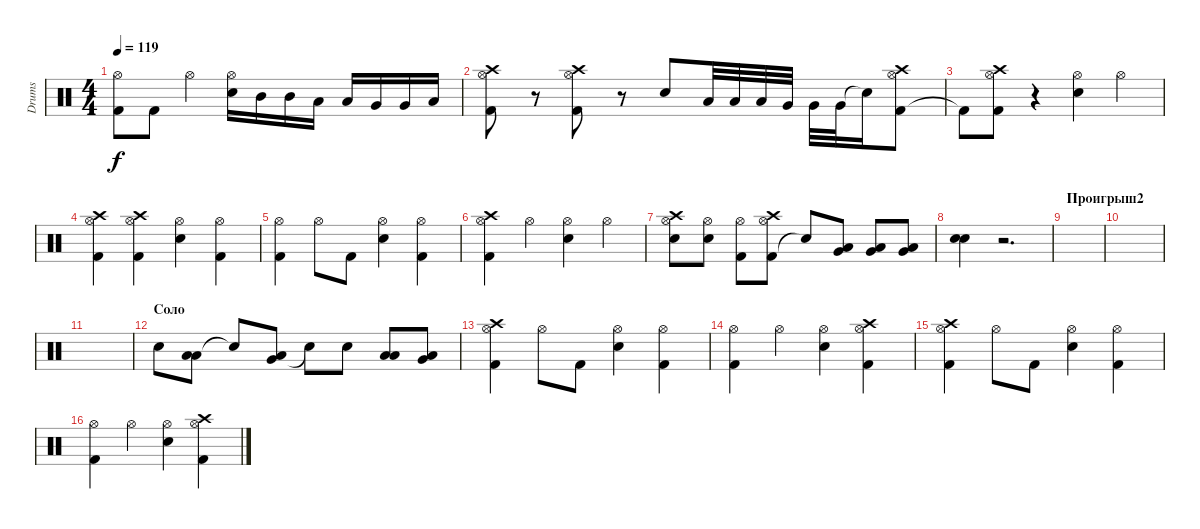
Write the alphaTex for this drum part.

\track ("Drums" "Drums") {instrument percussion}
\staff {score}
\articulation defaults
\ts (4 4)
\tempo 119
\clef neutral
\ks c
("Kick (hit) 2" "Hi-Hat (open)").8{dy f} "Kick (hit) 2".8 "Hi-Hat (open)".4 ("Electric Snare (hit)" "Hi-Hat (open)").16 "Mid Tom (hit)".16 "Mid Tom (hit)".16 "Low Tom (hit)".16 "Low Tom (hit)".16 "Very Low Tom (hit)".16 "Very Low Tom (hit)".16 "Low Floor Tom (hit)".16 |
("Kick (hit) 2" "Hi-Hat (open)" "Crash high (hit)").8 r.8 ("Kick (hit) 2" "Hi-Hat (open)" "Crash high (hit)").8 r.8 "Electric Snare (hit)".8 "Low Tom (hit)".32 "Low Tom (hit)".32 "Low Tom (hit)".32 "Very Low Tom (hit)".32 "Very Low Tom (hit)".32 "Very Low Tom (hit)".32 "Snare (hit)"{t}.16 ("Kick (hit) 2" "Hi-Hat (open)" "Crash high (hit)").8 |
"Kick (hit) 2"{t}.8 ("Kick (hit) 2" "Hi-Hat (open)" "Crash high (hit)").8 r.4 ("Electric Snare (hit)" "Hi-Hat (open)").4 "Hi-Hat (open)".4 |
("Kick (hit) 2" "Hi-Hat (open)" "Crash high (hit)").4 ("Kick (hit) 2" "Hi-Hat (open)" "Crash high (hit)").4 ("Electric Snare (hit)" "Hi-Hat (open)").4 ("Kick (hit) 2" "Hi-Hat (open)").4 |
("Kick (hit) 2" "Hi-Hat (open)").4 "Hi-Hat (open)".8 "Kick (hit) 2".8 ("Electric Snare (hit)" "Hi-Hat (open)").4 ("Kick (hit) 2" "Hi-Hat (open)").4 |
("Kick (hit) 2" "Hi-Hat (open)" "Crash high (hit)").4 "Hi-Hat (open)".4 ("Electric Snare (hit)" "Hi-Hat (open)").4 "Hi-Hat (open)".4 |
("Electric Snare (hit)" "Hi-Hat (open)" "Crash high (hit)").8 ("Electric Snare (hit)" "Hi-Hat (open)").8 ("Kick (hit) 2" "Hi-Hat (open)").8 ("Kick (hit) 2" "Hi-Hat (open)" "Crash high (hit)").8 "Snare (hit)"{t}.8 ("Very Low Tom (hit)" "Low Tom (hit)").8 ("Very Low Tom (hit)" "Low Floor Tom (hit)").8 ("Very Low Tom (hit)" "Low Floor Tom (hit)").8 |
("Electric Snare (hit)" "Electric Snare (hit)").4 r.2{d} |
\section ("" "Проигрыш2")
|
|
|
\section ("" "Соло")
"Electric Snare (hit)".8 ("Low Tom (hit)" "Low Floor Tom (hit)").8 "Snare (hit)"{t}.8 ("Very Low Tom (hit)" "Low Floor Tom (hit)").8 "Snare (hit)"{t}.8 "Electric Snare (hit)".8 ("Low Tom (hit)" "Low Floor Tom (hit)").8 ("Very Low Tom (hit)" "Low Floor Tom (hit)").8 |
("Kick (hit) 2" "Hi-Hat (open)" "Crash high (hit)").4 "Hi-Hat (open)".8 "Kick (hit) 2".8 ("Electric Snare (hit)" "Hi-Hat (open)").4 ("Kick (hit) 2" "Hi-Hat (open)").4 |
("Kick (hit) 2" "Hi-Hat (open)").4 "Hi-Hat (open)".4 ("Electric Snare (hit)" "Hi-Hat (open)").4 ("Kick (hit) 2" "Hi-Hat (open)" "Crash high (hit)").4 |
("Kick (hit) 2" "Hi-Hat (open)" "Crash high (hit)").4 "Hi-Hat (open)".8 "Kick (hit) 2".8 ("Electric Snare (hit)" "Hi-Hat (open)").4 ("Kick (hit) 2" "Hi-Hat (open)").4 |
("Kick (hit) 2" "Hi-Hat (open)").4 "Hi-Hat (open)".4 ("Electric Snare (hit)" "Hi-Hat (open)").4 ("Kick (hit) 2" "Hi-Hat (open)" "Crash high (hit)").4
